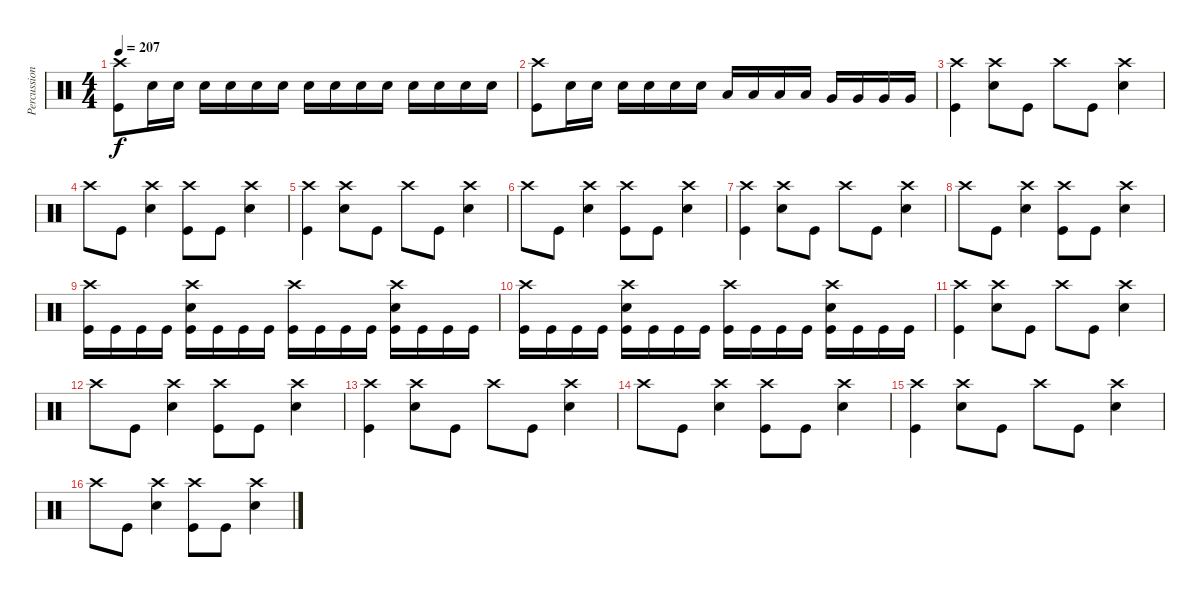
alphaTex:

\track ("Percussion" "Percussion") {instrument percussion}
\staff {score}
\articulation defaults
\ts (4 4)
\tempo 207
\clef neutral
\ks c
("Crash high (hit)" "Kick (hit)").8{dy f} "Electric Snare (hit)".16 "Electric Snare (hit)".16 "Electric Snare (hit)".16 "Electric Snare (hit)".16 "Electric Snare (hit)".16 "Electric Snare (hit)".16 "Electric Snare (hit)".16 "Electric Snare (hit)".16 "Electric Snare (hit)".16 "Electric Snare (hit)".16 "Electric Snare (hit)".16 "Electric Snare (hit)".16 "Electric Snare (hit)".16 "Electric Snare (hit)".16 |
("Crash high (hit)" "Kick (hit)").8 "Electric Snare (hit)".16 "Electric Snare (hit)".16 "Electric Snare (hit)".16 "Electric Snare (hit)".16 "Electric Snare (hit)".16 "Electric Snare (hit)".16 "Low Tom (hit)".16 "Low Tom (hit)".16 "Low Tom (hit)".16 "Low Tom (hit)".16 "Very Low Tom (hit)".16 "Very Low Tom (hit)".16 "Very Low Tom (hit)".16 "Very Low Tom (hit)".16 |
("Crash high (hit)" "Kick (hit)").4 ("Crash high (hit)" "Electric Snare (hit)").8 "Kick (hit)".8 "Crash high (hit)".8 "Kick (hit)".8 ("Crash high (hit)" "Electric Snare (hit)").4 |
"Crash high (hit)".8 "Kick (hit)".8 ("Crash high (hit)" "Electric Snare (hit)").4 ("Crash high (hit)" "Kick (hit)").8 "Kick (hit)".8 ("Crash high (hit)" "Electric Snare (hit)").4 |
("Crash high (hit)" "Kick (hit)").4 ("Crash high (hit)" "Electric Snare (hit)").8 "Kick (hit)".8 "Crash high (hit)".8 "Kick (hit)".8 ("Crash high (hit)" "Electric Snare (hit)").4 |
"Crash high (hit)".8 "Kick (hit)".8 ("Crash high (hit)" "Electric Snare (hit)").4 ("Crash high (hit)" "Kick (hit)").8 "Kick (hit)".8 ("Crash high (hit)" "Electric Snare (hit)").4 |
("Crash high (hit)" "Kick (hit)").4 ("Crash high (hit)" "Electric Snare (hit)").8 "Kick (hit)".8 "Crash high (hit)".8 "Kick (hit)".8 ("Crash high (hit)" "Electric Snare (hit)").4 |
"Crash high (hit)".8 "Kick (hit)".8 ("Crash high (hit)" "Electric Snare (hit)").4 ("Crash high (hit)" "Kick (hit)").8 "Kick (hit)".8 ("Crash high (hit)" "Electric Snare (hit)").4 |
("Crash high (hit)" "Kick (hit)").16 "Kick (hit)".16 "Kick (hit)".16 "Kick (hit)".16 ("Crash high (hit)" "Electric Snare (hit)" "Kick (hit)").16 "Kick (hit)".16 "Kick (hit)".16 "Kick (hit)".16 ("Crash high (hit)" "Kick (hit)").16 "Kick (hit)".16 "Kick (hit)".16 "Kick (hit)".16 ("Crash high (hit)" "Electric Snare (hit)" "Kick (hit)").16 "Kick (hit)".16 "Kick (hit)".16 "Kick (hit)".16 |
("Crash high (hit)" "Kick (hit)").16 "Kick (hit)".16 "Kick (hit)".16 "Kick (hit)".16 ("Crash high (hit)" "Electric Snare (hit)" "Kick (hit)").16 "Kick (hit)".16 "Kick (hit)".16 "Kick (hit)".16 ("Crash high (hit)" "Kick (hit)").16 "Kick (hit)".16 "Kick (hit)".16 "Kick (hit)".16 ("Crash high (hit)" "Electric Snare (hit)" "Kick (hit)").16 "Kick (hit)".16 "Kick (hit)".16 "Kick (hit)".16 |
("Crash high (hit)" "Kick (hit)").4 ("Crash high (hit)" "Electric Snare (hit)").8 "Kick (hit)".8 "Crash high (hit)".8 "Kick (hit)".8 ("Crash high (hit)" "Electric Snare (hit)").4 |
"Crash high (hit)".8 "Kick (hit)".8 ("Crash high (hit)" "Electric Snare (hit)").4 ("Crash high (hit)" "Kick (hit)").8 "Kick (hit)".8 ("Crash high (hit)" "Electric Snare (hit)").4 |
("Crash high (hit)" "Kick (hit)").4 ("Crash high (hit)" "Electric Snare (hit)").8 "Kick (hit)".8 "Crash high (hit)".8 "Kick (hit)".8 ("Crash high (hit)" "Electric Snare (hit)").4 |
"Crash high (hit)".8 "Kick (hit)".8 ("Crash high (hit)" "Electric Snare (hit)").4 ("Crash high (hit)" "Kick (hit)").8 "Kick (hit)".8 ("Crash high (hit)" "Electric Snare (hit)").4 |
("Crash high (hit)" "Kick (hit)").4 ("Crash high (hit)" "Electric Snare (hit)").8 "Kick (hit)".8 "Crash high (hit)".8 "Kick (hit)".8 ("Crash high (hit)" "Electric Snare (hit)").4 |
"Crash high (hit)".8 "Kick (hit)".8 ("Crash high (hit)" "Electric Snare (hit)").4 ("Crash high (hit)" "Kick (hit)").8 "Kick (hit)".8 ("Crash high (hit)" "Electric Snare (hit)").4
